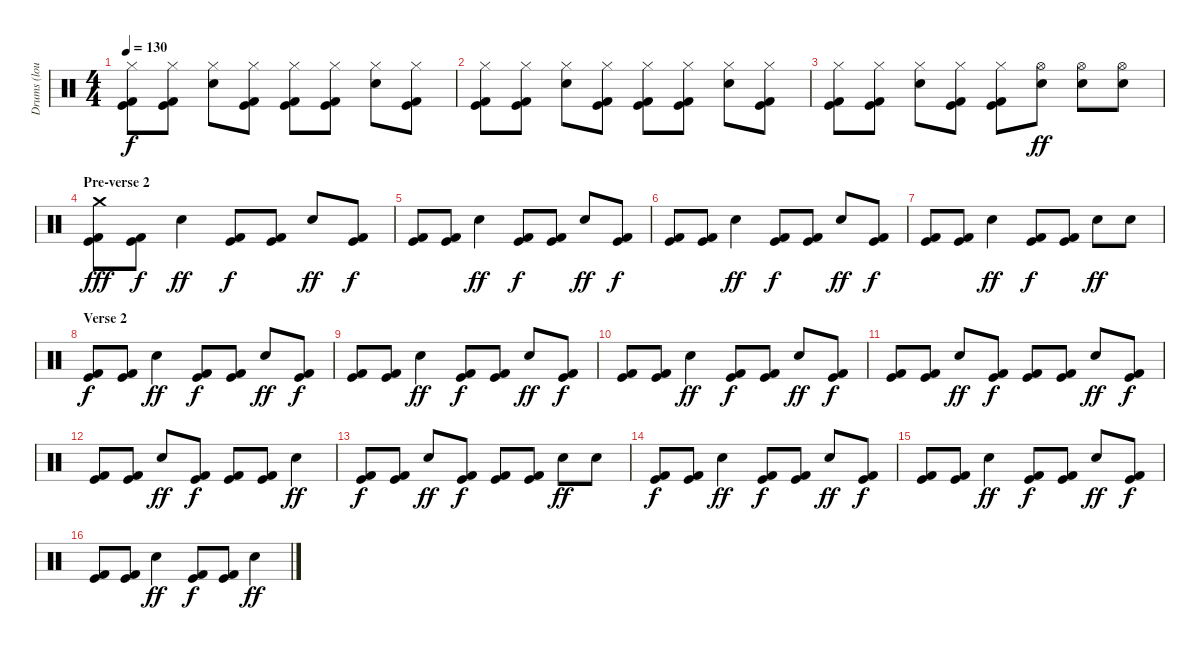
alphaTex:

\track ("Drums (loud!)" "Drums (lou") {instrument percussion}
\staff {score}
\articulation defaults
\ts (4 4)
\tempo 130
\clef neutral
\ks c
("Hi-Hat (closed)" "Kick (hit) 2" "Kick (hit)").8{dy f} ("Hi-Hat (closed)" "Kick (hit) 2" "Kick (hit)").8 ("Hi-Hat (closed)" "Snare (hit) 2").8 ("Hi-Hat (closed)" "Kick (hit) 2" "Kick (hit)").8 ("Hi-Hat (closed)" "Kick (hit) 2" "Kick (hit)").8 ("Hi-Hat (closed)" "Kick (hit) 2" "Kick (hit)").8 ("Hi-Hat (closed)" "Snare (hit) 2").8 ("Hi-Hat (closed)" "Kick (hit) 2" "Kick (hit)").8 |
("Hi-Hat (closed)" "Kick (hit) 2" "Kick (hit)").8 ("Hi-Hat (closed)" "Kick (hit) 2" "Kick (hit)").8 ("Hi-Hat (closed)" "Snare (hit) 2").8 ("Hi-Hat (closed)" "Kick (hit) 2" "Kick (hit)").8 ("Hi-Hat (closed)" "Kick (hit) 2" "Kick (hit)").8 ("Hi-Hat (closed)" "Kick (hit) 2" "Kick (hit)").8 ("Hi-Hat (closed)" "Snare (hit) 2").8 ("Hi-Hat (closed)" "Kick (hit) 2" "Kick (hit)").8 |
("Hi-Hat (closed)" "Kick (hit) 2" "Kick (hit)").8 ("Hi-Hat (closed)" "Kick (hit) 2" "Kick (hit)").8 ("Hi-Hat (closed)" "Snare (hit) 2").8 ("Hi-Hat (closed)" "Kick (hit) 2" "Kick (hit)").8 ("Hi-Hat (closed)" "Kick (hit) 2" "Kick (hit)").8 ("Hi-Hat (open)" "Snare (hit) 2").8{dy ff} ("Hi-Hat (open)" "Snare (hit) 2").8 ("Hi-Hat (open)" "Snare (hit) 2").8 |
\section ("" "Pre-verse 2")
("Crash medium (hit)" "Kick (hit)" "Kick (hit) 2").8{dy fff} ("Kick (hit)" "Kick (hit) 2").8{dy f} "Snare (hit) 2".4{dy ff} ("Kick (hit)" "Kick (hit) 2").8{dy f} ("Kick (hit)" "Kick (hit) 2").8 "Snare (hit) 2".8{dy ff} ("Kick (hit)" "Kick (hit) 2").8{dy f} |
("Kick (hit)" "Kick (hit) 2").8 ("Kick (hit)" "Kick (hit) 2").8 "Snare (hit) 2".4{dy ff} ("Kick (hit)" "Kick (hit) 2").8{dy f} ("Kick (hit)" "Kick (hit) 2").8 "Snare (hit) 2".8{dy ff} ("Kick (hit)" "Kick (hit) 2").8{dy f} |
("Kick (hit)" "Kick (hit) 2").8 ("Kick (hit)" "Kick (hit) 2").8 "Snare (hit) 2".4{dy ff} ("Kick (hit)" "Kick (hit) 2").8{dy f} ("Kick (hit)" "Kick (hit) 2").8 "Snare (hit) 2".8{dy ff} ("Kick (hit)" "Kick (hit) 2").8{dy f} |
("Kick (hit)" "Kick (hit) 2").8 ("Kick (hit)" "Kick (hit) 2").8 "Snare (hit) 2".4{dy ff} ("Kick (hit)" "Kick (hit) 2").8{dy f} ("Kick (hit)" "Kick (hit) 2").8 "Snare (hit) 2".8{dy ff} "Snare (hit) 2".8 |
\section ("" "Verse 2")
("Kick (hit)" "Kick (hit) 2").8{dy f} ("Kick (hit)" "Kick (hit) 2").8 "Snare (hit) 2".4{dy ff} ("Kick (hit)" "Kick (hit) 2").8{dy f} ("Kick (hit)" "Kick (hit) 2").8 "Snare (hit) 2".8{dy ff} ("Kick (hit)" "Kick (hit) 2").8{dy f} |
("Kick (hit)" "Kick (hit) 2").8 ("Kick (hit)" "Kick (hit) 2").8 "Snare (hit) 2".4{dy ff} ("Kick (hit)" "Kick (hit) 2").8{dy f} ("Kick (hit)" "Kick (hit) 2").8 "Snare (hit) 2".8{dy ff} ("Kick (hit)" "Kick (hit) 2").8{dy f} |
("Kick (hit)" "Kick (hit) 2").8 ("Kick (hit)" "Kick (hit) 2").8 "Snare (hit) 2".4{dy ff} ("Kick (hit)" "Kick (hit) 2").8{dy f} ("Kick (hit)" "Kick (hit) 2").8 "Snare (hit) 2".8{dy ff} ("Kick (hit)" "Kick (hit) 2").8{dy f} |
("Kick (hit)" "Kick (hit) 2").8 ("Kick (hit)" "Kick (hit) 2").8 "Snare (hit) 2".8{dy ff} ("Kick (hit)" "Kick (hit) 2").8{dy f} ("Kick (hit)" "Kick (hit) 2").8 ("Kick (hit)" "Kick (hit) 2").8 "Snare (hit) 2".8{dy ff} ("Kick (hit)" "Kick (hit) 2").8{dy f} |
("Kick (hit)" "Kick (hit) 2").8 ("Kick (hit)" "Kick (hit) 2").8 "Snare (hit) 2".8{dy ff} ("Kick (hit)" "Kick (hit) 2").8{dy f} ("Kick (hit)" "Kick (hit) 2").8 ("Kick (hit)" "Kick (hit) 2").8 "Snare (hit) 2".4{dy ff} |
("Kick (hit)" "Kick (hit) 2").8{dy f} ("Kick (hit)" "Kick (hit) 2").8 "Snare (hit) 2".8{dy ff} ("Kick (hit)" "Kick (hit) 2").8{dy f} ("Kick (hit)" "Kick (hit) 2").8 ("Kick (hit)" "Kick (hit) 2").8 "Snare (hit) 2".8{dy ff} "Snare (hit) 2".8 |
("Kick (hit)" "Kick (hit) 2").8{dy f} ("Kick (hit)" "Kick (hit) 2").8 "Snare (hit) 2".4{dy ff} ("Kick (hit)" "Kick (hit) 2").8{dy f} ("Kick (hit)" "Kick (hit) 2").8 "Snare (hit) 2".8{dy ff} ("Kick (hit)" "Kick (hit) 2").8{dy f} |
("Kick (hit)" "Kick (hit) 2").8 ("Kick (hit)" "Kick (hit) 2").8 "Snare (hit) 2".4{dy ff} ("Kick (hit)" "Kick (hit) 2").8{dy f} ("Kick (hit)" "Kick (hit) 2").8 "Snare (hit) 2".8{dy ff} ("Kick (hit)" "Kick (hit) 2").8{dy f} |
("Kick (hit)" "Kick (hit) 2").8 ("Kick (hit)" "Kick (hit) 2").8 "Snare (hit) 2".4{dy ff} ("Kick (hit)" "Kick (hit) 2").8{dy f} ("Kick (hit)" "Kick (hit) 2").8 "Snare (hit) 2".4{dy ff}
